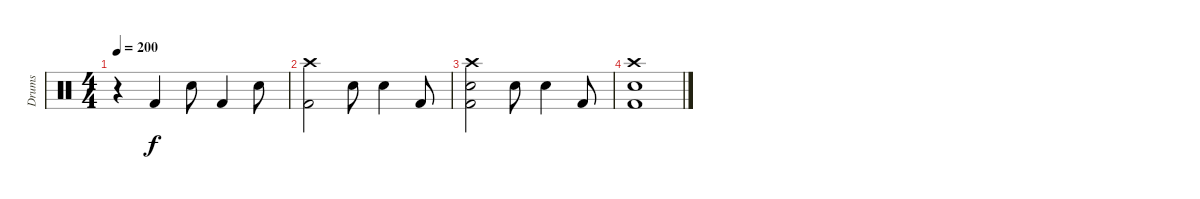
\track ("Drums" "Drums") {instrument percussion}
\staff {score}
\articulation defaults
\ts (4 4)
\tempo 200
\clef neutral
\ks c
r.4{dy f} "Kick (hit) 2".4 "Snare (hit) 2".8 "Kick (hit) 2".4 "Snare (hit) 2".8 |
("Crash high (hit)" "Kick (hit) 2").2 "Snare (hit) 2".8 "Snare (hit) 2".4 "Kick (hit) 2".8 |
("Crash high (hit)" "Snare (hit) 2" "Kick (hit) 2").2 "Snare (hit) 2".8 "Snare (hit) 2".4 "Kick (hit) 2".8 |
("Crash high (hit)" "Snare (hit) 2" "Kick (hit) 2").1
